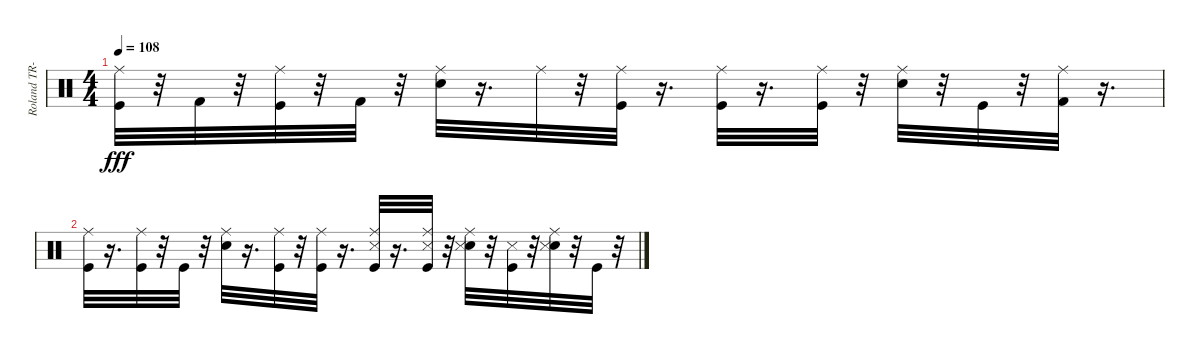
\track ("Roland TR-707" "Roland TR-") {instrument percussion}
\staff {score}
\articulation defaults
\ts (4 4)
\tempo 108
\clef neutral
\ks c
("Kick (hit)" "Ride (middle)").32{dy fff} r.32 "Kick (hit) 2".32 r.32 ("Kick (hit)" "Ride (middle)").32 r.32 "Kick (hit) 2".32 r.32 ("Snare (hit) 2" "Ride (middle)").32 r.16{d} "Ride (middle)".32 r.32 ("Kick (hit)" "Ride (middle)").32 r.16{d} ("Kick (hit)" "Ride (middle)").32 r.16{d} ("Kick (hit)" "Ride (middle)").32 r.32 ("Snare (hit) 2" "Ride (middle)").32 r.32 "Kick (hit)".32 r.32 ("Kick (hit) 2" "Ride (middle)").32 r.16{d} |
("Kick (hit)" "Ride (middle)").32 r.16{d} ("Kick (hit)" "Ride (middle)").32 r.32 "Kick (hit)".32 r.32 ("Snare (hit) 2" "Ride (middle)").32 r.16{d} ("Kick (hit)" "Ride (middle)").32 r.32 ("Kick (hit)" "Ride (middle)").32 r.16{d} ("Kick (hit)" "Snare (side stick) 3" "Ride (middle)").32 r.16{d} ("Kick (hit)" "Snare (side stick) 3" "Ride (middle)").32 r.32 ("Snare (hit) 2" "Snare (side stick) 3" "Ride (middle)").32 r.32 ("Kick (hit)" "Snare (side stick) 3").32 r.32 ("Snare (hit) 2" "Snare (side stick) 3" "Ride (middle)").32 r.32 "Kick (hit)".32 r.32
